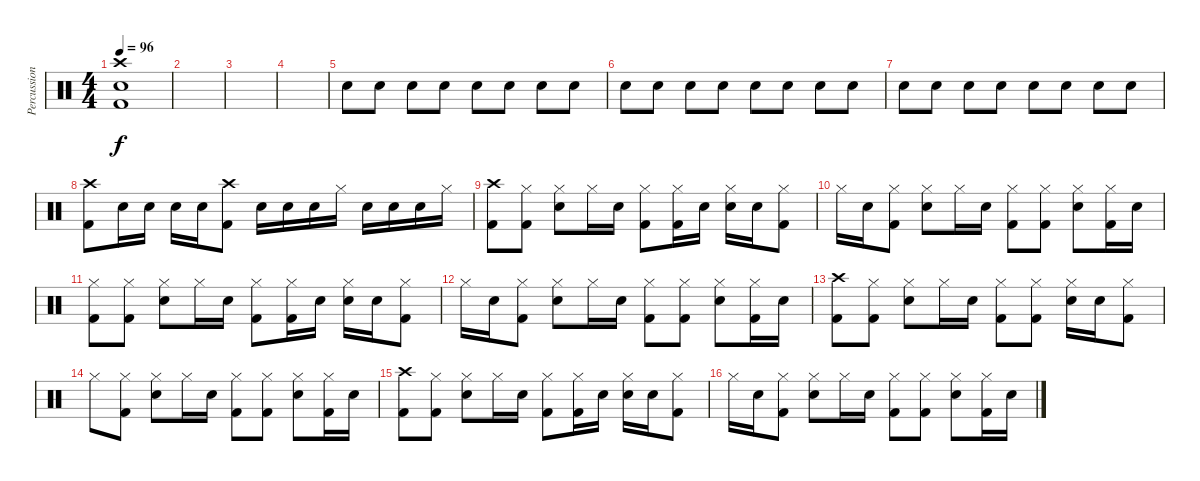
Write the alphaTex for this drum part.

\track ("Percussion" "Percussion") {instrument percussion}
\staff {score}
\articulation defaults
\ts (4 4)
\tempo 96
\clef neutral
\ks c
("Crash high (hit)" "Electric Snare (hit)" "Kick (hit) 2").1{dy f} |
|
|
|
"Electric Snare (hit)".8{volume 8} "Electric Snare (hit)".8 "Electric Snare (hit)".8{volume 13} "Electric Snare (hit)".8 "Electric Snare (hit)".8 "Electric Snare (hit)".8 "Electric Snare (hit)".8 "Electric Snare (hit)".8 |
"Electric Snare (hit)".8 "Electric Snare (hit)".8 "Electric Snare (hit)".8 "Electric Snare (hit)".8 "Electric Snare (hit)".8 "Electric Snare (hit)".8 "Electric Snare (hit)".8 "Electric Snare (hit)".8 |
"Electric Snare (hit)".8 "Electric Snare (hit)".8 "Electric Snare (hit)".8 "Electric Snare (hit)".8 "Electric Snare (hit)".8 "Electric Snare (hit)".8 "Electric Snare (hit)".8 "Electric Snare (hit)".8 |
("Crash high (hit)" "Kick (hit) 2").8 "Electric Snare (hit)".16 "Electric Snare (hit)".16 "Electric Snare (hit)".16 "Electric Snare (hit)".16 ("Crash high (hit)" "Kick (hit) 2").8 "Electric Snare (hit)".16 "Electric Snare (hit)".16 "Electric Snare (hit)".16 "Hi-Hat (closed)".16 "Electric Snare (hit)".16 "Electric Snare (hit)".16 "Electric Snare (hit)".16 "Hi-Hat (closed)".16 |
("Crash high (hit)" "Kick (hit) 2").8 ("Hi-Hat (closed)" "Kick (hit) 2").8 ("Hi-Hat (closed)" "Electric Snare (hit)").8 "Hi-Hat (closed)".16 "Electric Snare (hit)".16 ("Hi-Hat (closed)" "Kick (hit) 2").8 ("Hi-Hat (closed)" "Kick (hit) 2").16 "Electric Snare (hit)".16 ("Hi-Hat (closed)" "Electric Snare (hit)").16 "Electric Snare (hit)".16 ("Hi-Hat (closed)" "Kick (hit) 2").8 |
"Hi-Hat (closed)".16 "Electric Snare (hit)".16 ("Hi-Hat (closed)" "Kick (hit) 2").8 ("Hi-Hat (closed)" "Electric Snare (hit)").8 "Hi-Hat (closed)".16 "Electric Snare (hit)".16 ("Hi-Hat (closed)" "Kick (hit) 2").8 ("Hi-Hat (closed)" "Kick (hit) 2").8 ("Hi-Hat (closed)" "Electric Snare (hit)").8 ("Hi-Hat (closed)" "Kick (hit) 2").16 "Electric Snare (hit)".16 |
("Hi-Hat (closed)" "Kick (hit) 2").8 ("Hi-Hat (closed)" "Kick (hit) 2").8 ("Hi-Hat (closed)" "Electric Snare (hit)").8 "Hi-Hat (closed)".16 "Electric Snare (hit)".16 ("Hi-Hat (closed)" "Kick (hit) 2").8 ("Hi-Hat (closed)" "Kick (hit) 2").16 "Electric Snare (hit)".16 ("Hi-Hat (closed)" "Electric Snare (hit)").16 "Electric Snare (hit)".16 ("Hi-Hat (closed)" "Kick (hit) 2").8 |
"Hi-Hat (closed)".16 "Electric Snare (hit)".16 ("Hi-Hat (closed)" "Kick (hit) 2").8 ("Hi-Hat (closed)" "Electric Snare (hit)").8 "Hi-Hat (closed)".16 "Electric Snare (hit)".16 ("Hi-Hat (closed)" "Kick (hit) 2").8 ("Hi-Hat (closed)" "Kick (hit) 2").8 ("Hi-Hat (closed)" "Electric Snare (hit)").8 ("Hi-Hat (closed)" "Kick (hit) 2").16 "Electric Snare (hit)".16 |
("Crash high (hit)" "Kick (hit) 2").8 ("Hi-Hat (closed)" "Kick (hit) 2").8 ("Hi-Hat (closed)" "Electric Snare (hit)").8 "Hi-Hat (closed)".16 "Electric Snare (hit)".16 ("Hi-Hat (closed)" "Kick (hit) 2").8 ("Hi-Hat (closed)" "Kick (hit) 2").8 ("Hi-Hat (closed)" "Electric Snare (hit)").16 "Electric Snare (hit)".16 ("Hi-Hat (closed)" "Kick (hit) 2").8 |
"Hi-Hat (closed)".8 ("Hi-Hat (closed)" "Kick (hit) 2").8 ("Hi-Hat (closed)" "Electric Snare (hit)").8 "Hi-Hat (closed)".16 "Electric Snare (hit)".16 ("Hi-Hat (closed)" "Kick (hit) 2").8 ("Hi-Hat (closed)" "Kick (hit) 2").8 ("Hi-Hat (closed)" "Electric Snare (hit)").8 ("Hi-Hat (closed)" "Kick (hit) 2").16 "Electric Snare (hit)".16 |
("Crash high (hit)" "Kick (hit) 2").8 ("Hi-Hat (closed)" "Kick (hit) 2").8 ("Hi-Hat (closed)" "Electric Snare (hit)").8 "Hi-Hat (closed)".16 "Electric Snare (hit)".16 ("Hi-Hat (closed)" "Kick (hit) 2").8 ("Hi-Hat (closed)" "Kick (hit) 2").16 "Electric Snare (hit)".16 ("Hi-Hat (closed)" "Electric Snare (hit)").16 "Electric Snare (hit)".16 ("Hi-Hat (closed)" "Kick (hit) 2").8 |
"Hi-Hat (closed)".16 "Electric Snare (hit)".16 ("Hi-Hat (closed)" "Kick (hit) 2").8 ("Hi-Hat (closed)" "Electric Snare (hit)").8 "Hi-Hat (closed)".16 "Electric Snare (hit)".16 ("Hi-Hat (closed)" "Kick (hit) 2").8 ("Hi-Hat (closed)" "Kick (hit) 2").8 ("Hi-Hat (closed)" "Electric Snare (hit)").8 ("Hi-Hat (closed)" "Kick (hit) 2").16 "Electric Snare (hit)".16
